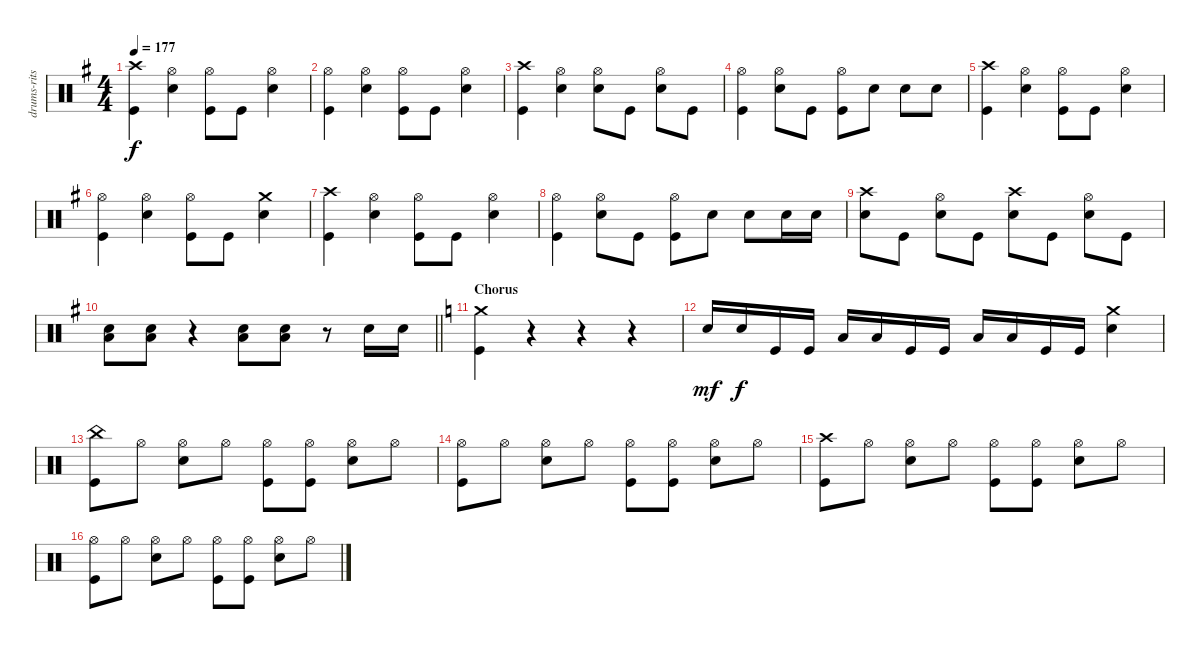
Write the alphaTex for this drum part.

\track ("drums-ritsu takana" "drums-rits") {instrument percussion}
\staff {score}
\articulation defaults
\ts (4 4)
\tempo 177
\clef neutral
\ks eminor
("Crash high (hit)" "Kick (hit)").4{dy f} ("Hi-Hat (open)" "Snare (hit) 2").4 ("Hi-Hat (open)" "Kick (hit)").8 "Kick (hit)".8 ("Hi-Hat (open)" "Snare (hit) 2").4 |
("Hi-Hat (open)" "Kick (hit)").4 ("Hi-Hat (open)" "Snare (hit) 2").4 ("Hi-Hat (open)" "Kick (hit)").8 "Kick (hit)".8 ("Hi-Hat (open)" "Snare (hit) 2").4 |
("Crash high (hit)" "Kick (hit)").4 ("Hi-Hat (open)" "Snare (hit) 2").4 ("Hi-Hat (open)" "Snare (hit) 2").8 "Kick (hit)".8 ("Hi-Hat (open)" "Snare (hit) 2").8 "Kick (hit)".8 |
("Hi-Hat (open)" "Kick (hit)").4 ("Hi-Hat (open)" "Snare (hit) 2").8 "Kick (hit)".8 ("Hi-Hat (open)" "Kick (hit)").8 "Snare (hit) 2".8 "Snare (hit) 2".8 "Snare (hit) 2".8 |
("Crash high (hit)" "Kick (hit)").4 ("Hi-Hat (open)" "Snare (hit) 2").4 ("Hi-Hat (open)" "Kick (hit)").8 "Kick (hit)".8 ("Hi-Hat (open)" "Snare (hit) 2").4 |
("Hi-Hat (open)" "Kick (hit)").4 ("Hi-Hat (open)" "Snare (hit) 2").4 ("Hi-Hat (open)" "Kick (hit)").8 "Kick (hit)".8 ("Crash medium (hit)" "Snare (hit) 2").4 |
("Crash high (hit)" "Kick (hit)").4 ("Hi-Hat (open)" "Snare (hit) 2").4 ("Hi-Hat (open)" "Kick (hit)").8 "Kick (hit)".8 ("Hi-Hat (open)" "Snare (hit) 2").4 |
("Hi-Hat (open)" "Kick (hit)").4 ("Hi-Hat (open)" "Snare (hit) 2").8 "Kick (hit)".8 ("Hi-Hat (open)" "Kick (hit)").8 "Snare (hit) 2".8 "Snare (hit) 2".8 "Snare (hit) 2".16 "Snare (hit) 2".16 |
("Crash high (hit)" "Snare (hit) 2").8 "Kick (hit)".8 ("Hi-Hat (open)" "Snare (hit) 2").8 "Kick (hit)".8 ("Crash high (hit)" "Snare (hit) 2").8 "Kick (hit)".8 ("Hi-Hat (open)" "Snare (hit) 2").8 "Kick (hit)".8 |
\barLineRight lightlight
("Snare (hit) 2" "Low Floor Tom (hit)").8 ("Low Floor Tom (hit)" "Snare (hit) 2").8 r.4 ("Snare (hit) 2" "Low Floor Tom (hit)").8 ("Low Floor Tom (hit)" "Snare (hit) 2").8 r.8 "Snare (hit) 2".16 "Snare (hit) 2".16 |
\section ("" "Chorus")
\ks c
("Crash medium (hit)" "Kick (hit)").4 r.4 r.4 r.4 |
"Snare (hit) 2".16{dy mf} "Snare (hit) 2".16{dy f} "Kick (hit)".16 "Kick (hit)".16 "Low Tom (hit)".16 "Low Tom (hit)".16 "Kick (hit)".16 "Kick (hit)".16 "Low Floor Tom (hit)".16 "Low Floor Tom (hit)".16 "Kick (hit)".16 "Kick (hit)".16 ("Snare (hit) 2" "Crash medium (hit)").4 |
("Kick (hit)" "China (hit)").8 "Hi-Hat (open)".8 ("Hi-Hat (open)" "Snare (hit) 2").8 "Hi-Hat (open)".8 ("Hi-Hat (open)" "Kick (hit)").8 ("Kick (hit)" "Hi-Hat (open)").8 ("Hi-Hat (open)" "Snare (hit) 2").8 "Hi-Hat (open)".8 |
("Kick (hit)" "Hi-Hat (open)").8 "Hi-Hat (open)".8 ("Hi-Hat (open)" "Snare (hit) 2").8 "Hi-Hat (open)".8 ("Hi-Hat (open)" "Kick (hit)").8 ("Kick (hit)" "Hi-Hat (open)").8 ("Hi-Hat (open)" "Snare (hit) 2").8 "Hi-Hat (open)".8 |
("Kick (hit)" "Crash high (hit)").8 "Hi-Hat (open)".8 ("Hi-Hat (open)" "Snare (hit) 2").8 "Hi-Hat (open)".8 ("Hi-Hat (open)" "Kick (hit)").8 ("Kick (hit)" "Hi-Hat (open)").8 ("Hi-Hat (open)" "Snare (hit) 2").8 "Hi-Hat (open)".8 |
("Kick (hit)" "Hi-Hat (open)").8 "Hi-Hat (open)".8 ("Hi-Hat (open)" "Snare (hit) 2").8 "Hi-Hat (open)".8 ("Hi-Hat (open)" "Kick (hit)").8 ("Kick (hit)" "Hi-Hat (open)").8 ("Hi-Hat (open)" "Snare (hit) 2").8 "Hi-Hat (open)".8
